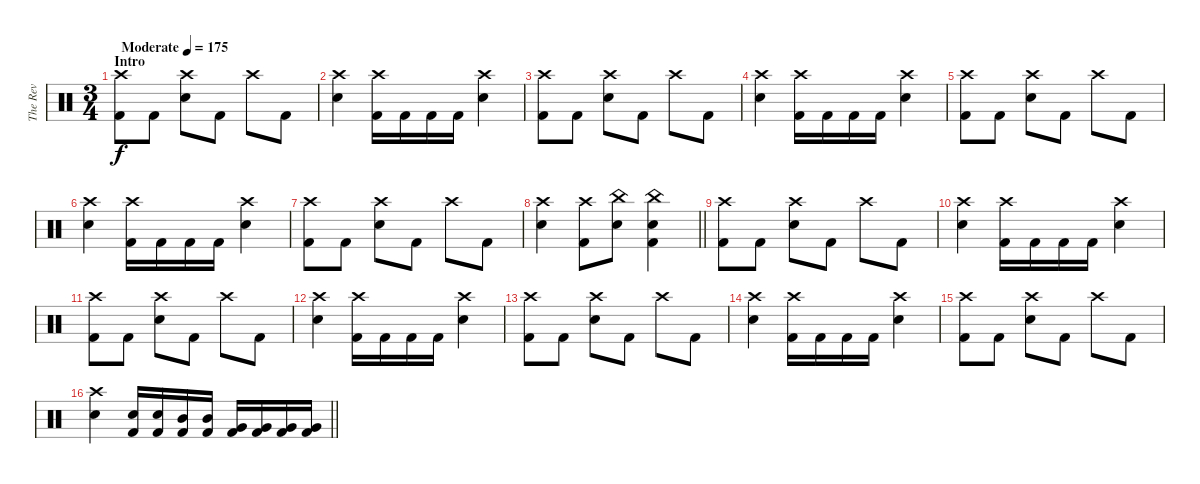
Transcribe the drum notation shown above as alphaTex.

\track ("The Rev" "The Rev") {instrument percussion}
\staff {score}
\articulation defaults
\ts (3 4)
\section ("" "Intro")
\tempo (175 "Moderate")
\clef neutral
\ks c
("Crash high (hit)" "Kick (hit) 2").8{dy f} "Kick (hit) 2".8 ("Crash high (hit)" "Snare (hit) 2").8 "Kick (hit) 2".8 "Crash high (hit)".8 "Kick (hit) 2".8 |
("Crash high (hit)" "Snare (hit) 2").4 ("Crash high (hit)" "Kick (hit) 2").16 "Kick (hit) 2".16 "Kick (hit) 2".16 "Kick (hit) 2".16 ("Crash high (hit)" "Snare (hit) 2").4 |
("Crash high (hit)" "Kick (hit) 2").8 "Kick (hit) 2".8 ("Crash high (hit)" "Snare (hit) 2").8 "Kick (hit) 2".8 "Crash high (hit)".8 "Kick (hit) 2".8 |
("Crash high (hit)" "Snare (hit) 2").4 ("Crash high (hit)" "Kick (hit) 2").16 "Kick (hit) 2".16 "Kick (hit) 2".16 "Kick (hit) 2".16 ("Crash high (hit)" "Snare (hit) 2").4 |
("Crash high (hit)" "Kick (hit) 2").8 "Kick (hit) 2".8 ("Crash high (hit)" "Snare (hit) 2").8 "Kick (hit) 2".8 "Crash high (hit)".8 "Kick (hit) 2".8 |
("Crash high (hit)" "Snare (hit) 2").4 ("Crash high (hit)" "Kick (hit) 2").16 "Kick (hit) 2".16 "Kick (hit) 2".16 "Kick (hit) 2".16 ("Crash high (hit)" "Snare (hit) 2").4 |
("Crash high (hit)" "Kick (hit) 2").8 "Kick (hit) 2".8 ("Crash high (hit)" "Snare (hit) 2").8 "Kick (hit) 2".8 "Crash high (hit)".8 "Kick (hit) 2".8 |
\barLineRight lightlight
("Crash high (hit)" "Snare (hit) 2").4 ("Crash high (hit)" "Kick (hit) 2").8 ("China (hit)" "Snare (hit) 2").8 ("China (hit)" "Snare (hit) 2" "Kick (hit) 2").4 |
("Crash high (hit)" "Kick (hit) 2").8 "Kick (hit) 2".8 ("Crash high (hit)" "Snare (hit) 2").8 "Kick (hit) 2".8 "Crash high (hit)".8 "Kick (hit) 2".8 |
("Crash high (hit)" "Snare (hit) 2").4 ("Crash high (hit)" "Kick (hit) 2").16 "Kick (hit) 2".16 "Kick (hit) 2".16 "Kick (hit) 2".16 ("Crash high (hit)" "Snare (hit) 2").4 |
("Crash high (hit)" "Kick (hit) 2").8 "Kick (hit) 2".8 ("Crash high (hit)" "Snare (hit) 2").8 "Kick (hit) 2".8 "Crash high (hit)".8 "Kick (hit) 2".8 |
("Crash high (hit)" "Snare (hit) 2").4 ("Crash high (hit)" "Kick (hit) 2").16 "Kick (hit) 2".16 "Kick (hit) 2".16 "Kick (hit) 2".16 ("Crash high (hit)" "Snare (hit) 2").4 |
("Crash high (hit)" "Kick (hit) 2").8 "Kick (hit) 2".8 ("Crash high (hit)" "Snare (hit) 2").8 "Kick (hit) 2".8 "Crash high (hit)".8 "Kick (hit) 2".8 |
("Crash high (hit)" "Snare (hit) 2").4 ("Crash high (hit)" "Kick (hit) 2").16 "Kick (hit) 2".16 "Kick (hit) 2".16 "Kick (hit) 2".16 ("Crash high (hit)" "Snare (hit) 2").4 |
("Crash high (hit)" "Kick (hit) 2").8 "Kick (hit) 2".8 ("Crash high (hit)" "Snare (hit) 2").8 "Kick (hit) 2".8 "Crash high (hit)".8 "Kick (hit) 2".8 |
\barLineRight lightlight
("Crash high (hit)" "Snare (hit) 2").4 ("Snare (hit) 2" "Kick (hit) 2").16 ("Snare (hit) 2" "Kick (hit) 2").16 ("Mid Tom (hit)" "Kick (hit) 2").16 ("Mid Tom (hit)" "Kick (hit) 2").16 ("Very Low Tom (hit)" "Kick (hit) 2").16 ("Very Low Tom (hit)" "Kick (hit) 2").16 ("Very Low Tom (hit)" "Kick (hit) 2").16 ("Very Low Tom (hit)" "Kick (hit) 2").16
